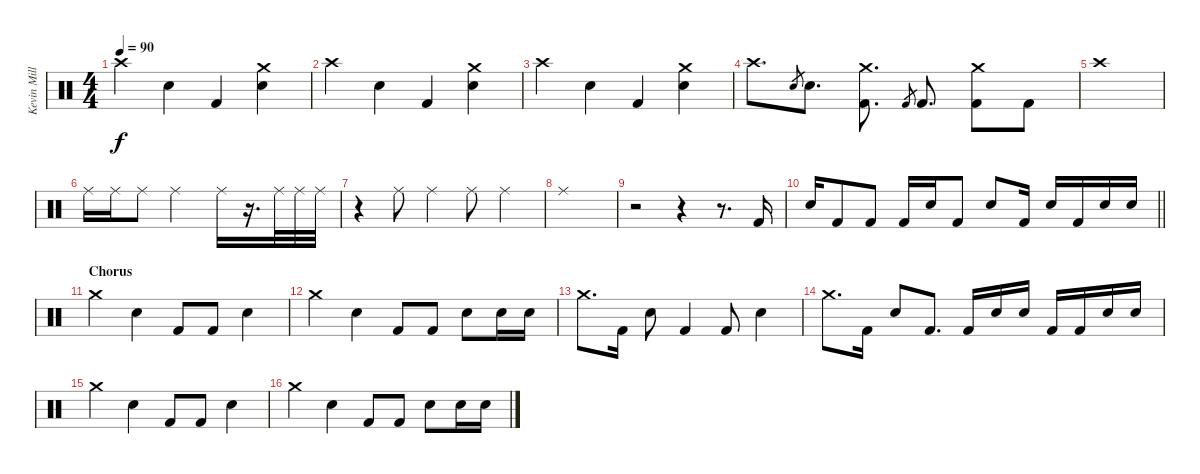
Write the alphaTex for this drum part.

\track ("Kevin Miller (Drums)" "Kevin Mill") {instrument percussion}
\staff {score}
\articulation defaults
\ts (4 4)
\tempo 90
\clef neutral
\ks c "Crash high (hit)".4{dy f} "Electric Snare (hit)".4 "Kick (hit) 2".4
("Crash medium (hit)" "Electric Snare (hit)").4 |
"Crash high (hit)".4 "Electric Snare (hit)".4 "Kick (hit) 2".4 ("Crash medium (hit)" "Electric Snare (hit)").4 |
"Crash high (hit)".4 "Electric Snare (hit)".4 "Kick (hit) 2".4 ("Crash medium (hit)" "Electric Snare (hit)").4 |
"Crash high (hit)".8{d} "Electric Snare (hit)".8{gr} "Electric Snare (hit)".8{d} ("Crash medium (hit)" "Kick (hit) 2").8{d} "Kick (hit) 2".8{gr} "Kick (hit) 2".8{d} ("Crash medium (hit)" "Kick (hit) 2").8 "Kick (hit) 2".8 |
"Crash high (hit)".1 |
"Ride (middle)".16 "Ride (middle)".16 "Ride (middle)".8 "Ride (middle)".2 "Ride (middle)".16 r.16{d} "Ride (middle)".32 "Ride (middle)".32 "Ride (middle)".32 |
r.4 "Ride (middle)".8 "Ride (middle)".4 "Ride (middle)".8 "Ride (middle)".4 |
"Ride (middle)".1 |
r.2 r.4 r.8{d} "Kick (hit) 2".16 |
\barLineRight lightlight "Electric Snare (hit)".16 "Kick (hit) 2".8 "Kick (hit) 2".8 "Kick (hit) 2".16 "Electric Snare (hit)".16 "Kick (hit) 2".8 "Electric Snare (hit)".8 "Kick (hit) 2".16 "Electric Snare (hit)".16 "Kick (hit) 2".16 "Electric Snare (hit)".16 "Electric Snare (hit)".16
|
\section ("" "Chorus")
"Crash medium (hit)".4 "Electric Snare (hit)".4 "Kick (hit) 2".8 "Kick (hit) 2".8 "Electric Snare (hit)".4 |
"Crash medium (hit)".4 "Electric Snare (hit)".4 "Kick (hit) 2".8 "Kick (hit) 2".8 "Electric Snare (hit)".8 "Electric Snare (hit)".16 "Electric Snare (hit)".16 |
"Crash medium (hit)".8{d} "Kick (hit) 2".16 "Electric Snare (hit)".8 "Kick (hit) 2".4 "Kick (hit) 2".8 "Electric Snare (hit)".4 |
"Crash medium (hit)".8{d} "Kick (hit) 2".16 "Electric Snare (hit)".8 "Kick (hit) 2".8{d} "Kick (hit) 2".16 "Electric Snare (hit)".16 "Electric Snare (hit)".16 "Kick (hit) 2".16 "Kick (hit) 2".16 "Electric Snare (hit)".16 "Electric Snare (hit)".16 |
"Crash medium (hit)".4 "Electric Snare (hit)".4 "Kick (hit) 2".8 "Kick (hit) 2".8 "Electric Snare (hit)".4 |
"Crash medium (hit)".4 "Electric Snare (hit)".4 "Kick (hit) 2".8 "Kick (hit) 2".8 "Electric Snare (hit)".8 "Electric Snare (hit)".16 "Electric Snare (hit)".16
